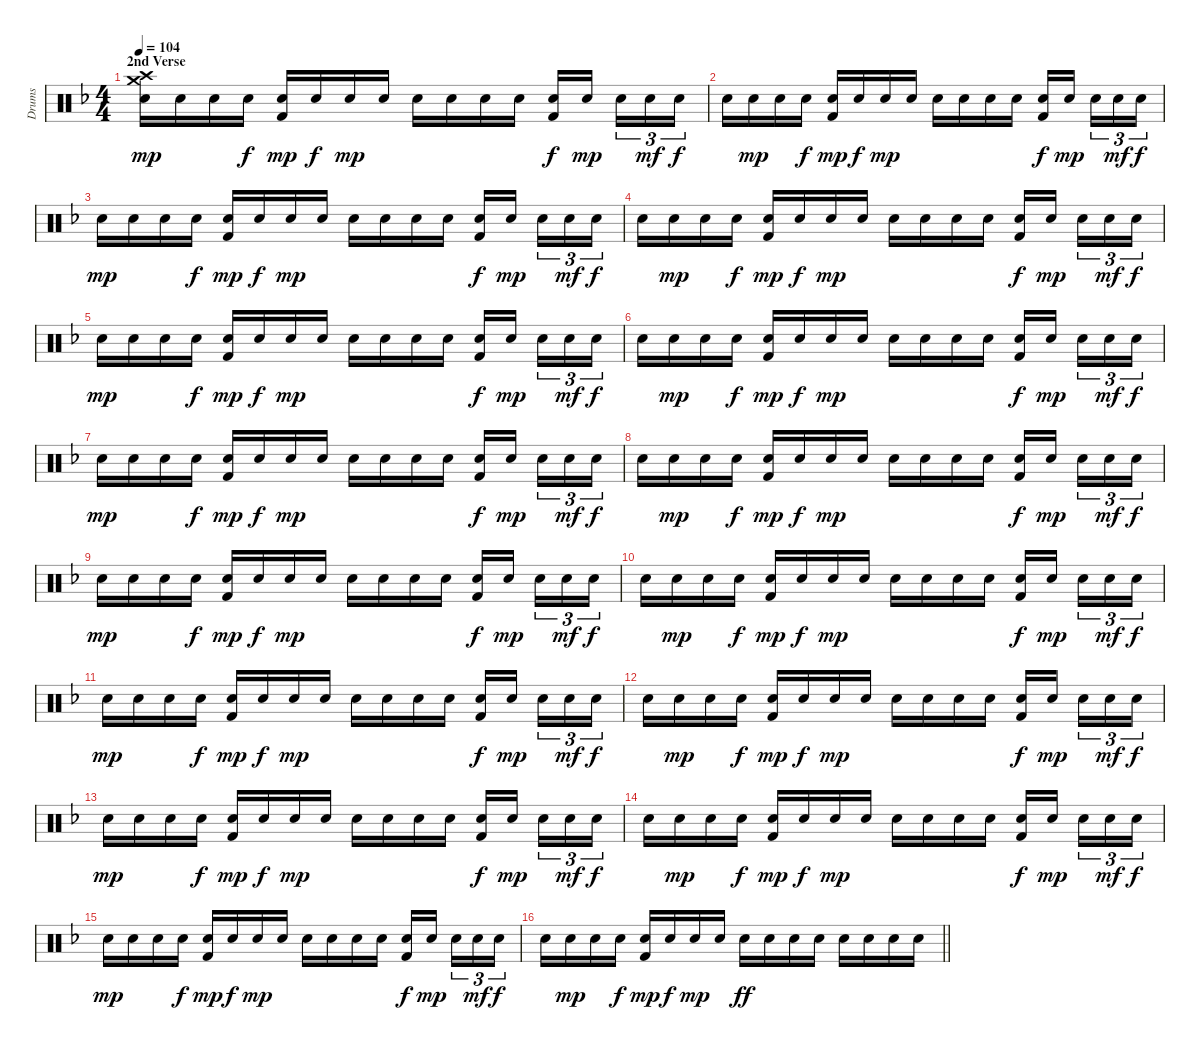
\track ("Drums" "Drums") {instrument percussion}
\staff {score}
\articulation defaults
\ts (4 4)
\section ("" "2nd Verse")
\tempo 104
\clef neutral
\ks dminor
("Crash medium (hit)" "Crash high (hit)" "Snare (hit) 2").16{dy mp} "Snare (hit) 2".16 "Snare (hit) 2".16 "Snare (hit) 2".16{dy f} ("Snare (hit) 2" "Kick (hit) 2").16{dy mp} "Snare (hit) 2".16{dy f} "Snare (hit) 2".16{dy mp} "Snare (hit) 2".16 "Snare (hit) 2".16 "Snare (hit) 2".16 "Snare (hit) 2".16 "Snare (hit) 2".16 ("Snare (hit) 2" "Kick (hit) 2").16{dy f} "Snare (hit) 2".16{dy mp beam splitsecondary} "Snare (hit) 2".16{tu (3 2)} "Snare (hit) 2".16{tu (3 2) dy mf} "Snare (hit) 2".16{tu (3 2) dy f} |
"Snare (hit) 2".16 "Snare (hit) 2".16{dy mp} "Snare (hit) 2".16 "Snare (hit) 2".16{dy f} ("Snare (hit) 2" "Kick (hit) 2").16{dy mp} "Snare (hit) 2".16{dy f} "Snare (hit) 2".16{dy mp} "Snare (hit) 2".16 "Snare (hit) 2".16 "Snare (hit) 2".16 "Snare (hit) 2".16 "Snare (hit) 2".16 ("Snare (hit) 2" "Kick (hit) 2").16{dy f} "Snare (hit) 2".16{dy mp beam splitsecondary} "Snare (hit) 2".16{tu (3 2)} "Snare (hit) 2".16{tu (3 2) dy mf} "Snare (hit) 2".16{tu (3 2) dy f} |
"Snare (hit) 2".16{dy mp} "Snare (hit) 2".16 "Snare (hit) 2".16 "Snare (hit) 2".16{dy f} ("Snare (hit) 2" "Kick (hit) 2").16{dy mp} "Snare (hit) 2".16{dy f} "Snare (hit) 2".16{dy mp} "Snare (hit) 2".16 "Snare (hit) 2".16 "Snare (hit) 2".16 "Snare (hit) 2".16 "Snare (hit) 2".16 ("Snare (hit) 2" "Kick (hit) 2").16{dy f} "Snare (hit) 2".16{dy mp beam splitsecondary} "Snare (hit) 2".16{tu (3 2)} "Snare (hit) 2".16{tu (3 2) dy mf} "Snare (hit) 2".16{tu (3 2) dy f} |
"Snare (hit) 2".16 "Snare (hit) 2".16{dy mp} "Snare (hit) 2".16 "Snare (hit) 2".16{dy f} ("Snare (hit) 2" "Kick (hit) 2").16{dy mp} "Snare (hit) 2".16{dy f} "Snare (hit) 2".16{dy mp} "Snare (hit) 2".16 "Snare (hit) 2".16 "Snare (hit) 2".16 "Snare (hit) 2".16 "Snare (hit) 2".16 ("Snare (hit) 2" "Kick (hit) 2").16{dy f} "Snare (hit) 2".16{dy mp beam splitsecondary} "Snare (hit) 2".16{tu (3 2)} "Snare (hit) 2".16{tu (3 2) dy mf} "Snare (hit) 2".16{tu (3 2) dy f} |
"Snare (hit) 2".16{dy mp} "Snare (hit) 2".16 "Snare (hit) 2".16 "Snare (hit) 2".16{dy f} ("Snare (hit) 2" "Kick (hit) 2").16{dy mp} "Snare (hit) 2".16{dy f} "Snare (hit) 2".16{dy mp} "Snare (hit) 2".16 "Snare (hit) 2".16 "Snare (hit) 2".16 "Snare (hit) 2".16 "Snare (hit) 2".16 ("Snare (hit) 2" "Kick (hit) 2").16{dy f} "Snare (hit) 2".16{dy mp beam splitsecondary} "Snare (hit) 2".16{tu (3 2)} "Snare (hit) 2".16{tu (3 2) dy mf} "Snare (hit) 2".16{tu (3 2) dy f} |
"Snare (hit) 2".16 "Snare (hit) 2".16{dy mp} "Snare (hit) 2".16 "Snare (hit) 2".16{dy f} ("Snare (hit) 2" "Kick (hit) 2").16{dy mp} "Snare (hit) 2".16{dy f} "Snare (hit) 2".16{dy mp} "Snare (hit) 2".16 "Snare (hit) 2".16 "Snare (hit) 2".16 "Snare (hit) 2".16 "Snare (hit) 2".16 ("Snare (hit) 2" "Kick (hit) 2").16{dy f} "Snare (hit) 2".16{dy mp beam splitsecondary} "Snare (hit) 2".16{tu (3 2)} "Snare (hit) 2".16{tu (3 2) dy mf} "Snare (hit) 2".16{tu (3 2) dy f} |
"Snare (hit) 2".16{dy mp} "Snare (hit) 2".16 "Snare (hit) 2".16 "Snare (hit) 2".16{dy f} ("Snare (hit) 2" "Kick (hit) 2").16{dy mp} "Snare (hit) 2".16{dy f} "Snare (hit) 2".16{dy mp} "Snare (hit) 2".16 "Snare (hit) 2".16 "Snare (hit) 2".16 "Snare (hit) 2".16 "Snare (hit) 2".16 ("Snare (hit) 2" "Kick (hit) 2").16{dy f} "Snare (hit) 2".16{dy mp beam splitsecondary} "Snare (hit) 2".16{tu (3 2)} "Snare (hit) 2".16{tu (3 2) dy mf} "Snare (hit) 2".16{tu (3 2) dy f} |
"Snare (hit) 2".16 "Snare (hit) 2".16{dy mp} "Snare (hit) 2".16 "Snare (hit) 2".16{dy f} ("Snare (hit) 2" "Kick (hit) 2").16{dy mp} "Snare (hit) 2".16{dy f} "Snare (hit) 2".16{dy mp} "Snare (hit) 2".16 "Snare (hit) 2".16 "Snare (hit) 2".16 "Snare (hit) 2".16 "Snare (hit) 2".16 ("Snare (hit) 2" "Kick (hit) 2").16{dy f} "Snare (hit) 2".16{dy mp beam splitsecondary} "Snare (hit) 2".16{tu (3 2)} "Snare (hit) 2".16{tu (3 2) dy mf} "Snare (hit) 2".16{tu (3 2) dy f} |
"Snare (hit) 2".16{dy mp} "Snare (hit) 2".16 "Snare (hit) 2".16 "Snare (hit) 2".16{dy f} ("Snare (hit) 2" "Kick (hit) 2").16{dy mp} "Snare (hit) 2".16{dy f} "Snare (hit) 2".16{dy mp} "Snare (hit) 2".16 "Snare (hit) 2".16 "Snare (hit) 2".16 "Snare (hit) 2".16 "Snare (hit) 2".16 ("Snare (hit) 2" "Kick (hit) 2").16{dy f} "Snare (hit) 2".16{dy mp beam splitsecondary} "Snare (hit) 2".16{tu (3 2)} "Snare (hit) 2".16{tu (3 2) dy mf} "Snare (hit) 2".16{tu (3 2) dy f} |
"Snare (hit) 2".16 "Snare (hit) 2".16{dy mp} "Snare (hit) 2".16 "Snare (hit) 2".16{dy f} ("Snare (hit) 2" "Kick (hit) 2").16{dy mp} "Snare (hit) 2".16{dy f} "Snare (hit) 2".16{dy mp} "Snare (hit) 2".16 "Snare (hit) 2".16 "Snare (hit) 2".16 "Snare (hit) 2".16 "Snare (hit) 2".16 ("Snare (hit) 2" "Kick (hit) 2").16{dy f} "Snare (hit) 2".16{dy mp beam splitsecondary} "Snare (hit) 2".16{tu (3 2)} "Snare (hit) 2".16{tu (3 2) dy mf} "Snare (hit) 2".16{tu (3 2) dy f} |
"Snare (hit) 2".16{dy mp} "Snare (hit) 2".16 "Snare (hit) 2".16 "Snare (hit) 2".16{dy f} ("Snare (hit) 2" "Kick (hit) 2").16{dy mp} "Snare (hit) 2".16{dy f} "Snare (hit) 2".16{dy mp} "Snare (hit) 2".16 "Snare (hit) 2".16 "Snare (hit) 2".16 "Snare (hit) 2".16 "Snare (hit) 2".16 ("Snare (hit) 2" "Kick (hit) 2").16{dy f} "Snare (hit) 2".16{dy mp beam splitsecondary} "Snare (hit) 2".16{tu (3 2)} "Snare (hit) 2".16{tu (3 2) dy mf} "Snare (hit) 2".16{tu (3 2) dy f} |
"Snare (hit) 2".16 "Snare (hit) 2".16{dy mp} "Snare (hit) 2".16 "Snare (hit) 2".16{dy f} ("Snare (hit) 2" "Kick (hit) 2").16{dy mp} "Snare (hit) 2".16{dy f} "Snare (hit) 2".16{dy mp} "Snare (hit) 2".16 "Snare (hit) 2".16 "Snare (hit) 2".16 "Snare (hit) 2".16 "Snare (hit) 2".16 ("Snare (hit) 2" "Kick (hit) 2").16{dy f} "Snare (hit) 2".16{dy mp beam splitsecondary} "Snare (hit) 2".16{tu (3 2)} "Snare (hit) 2".16{tu (3 2) dy mf} "Snare (hit) 2".16{tu (3 2) dy f} |
"Snare (hit) 2".16{dy mp} "Snare (hit) 2".16 "Snare (hit) 2".16 "Snare (hit) 2".16{dy f} ("Snare (hit) 2" "Kick (hit) 2").16{dy mp} "Snare (hit) 2".16{dy f} "Snare (hit) 2".16{dy mp} "Snare (hit) 2".16 "Snare (hit) 2".16 "Snare (hit) 2".16 "Snare (hit) 2".16 "Snare (hit) 2".16 ("Snare (hit) 2" "Kick (hit) 2").16{dy f} "Snare (hit) 2".16{dy mp beam splitsecondary} "Snare (hit) 2".16{tu (3 2)} "Snare (hit) 2".16{tu (3 2) dy mf} "Snare (hit) 2".16{tu (3 2) dy f} |
"Snare (hit) 2".16 "Snare (hit) 2".16{dy mp} "Snare (hit) 2".16 "Snare (hit) 2".16{dy f} ("Snare (hit) 2" "Kick (hit) 2").16{dy mp} "Snare (hit) 2".16{dy f} "Snare (hit) 2".16{dy mp} "Snare (hit) 2".16 "Snare (hit) 2".16 "Snare (hit) 2".16 "Snare (hit) 2".16 "Snare (hit) 2".16 ("Snare (hit) 2" "Kick (hit) 2").16{dy f} "Snare (hit) 2".16{dy mp beam splitsecondary} "Snare (hit) 2".16{tu (3 2)} "Snare (hit) 2".16{tu (3 2) dy mf} "Snare (hit) 2".16{tu (3 2) dy f} |
"Snare (hit) 2".16{dy mp} "Snare (hit) 2".16 "Snare (hit) 2".16 "Snare (hit) 2".16{dy f} ("Snare (hit) 2" "Kick (hit) 2").16{dy mp} "Snare (hit) 2".16{dy f} "Snare (hit) 2".16{dy mp} "Snare (hit) 2".16 "Snare (hit) 2".16 "Snare (hit) 2".16 "Snare (hit) 2".16 "Snare (hit) 2".16 ("Snare (hit) 2" "Kick (hit) 2").16{dy f} "Snare (hit) 2".16{dy mp beam splitsecondary} "Snare (hit) 2".16{tu (3 2)} "Snare (hit) 2".16{tu (3 2) dy mf} "Snare (hit) 2".16{tu (3 2) dy f} |
\barLineRight lightlight "Snare (hit) 2".16 "Snare (hit) 2".16{dy mp} "Snare (hit) 2".16 "Snare (hit) 2".16{dy f}
("Snare (hit) 2" "Kick (hit) 2").16{dy mp} "Snare (hit) 2".16{dy f} "Snare (hit) 2".16{dy mp} "Snare (hit) 2".16 "Snare (hit) 2".16{dy ff} "Snare (hit) 2".16 "Snare (hit) 2".16 "Snare (hit) 2".16 "Snare (hit) 2".16 "Snare (hit) 2".16 "Snare (hit) 2".16 "Snare (hit) 2".16
